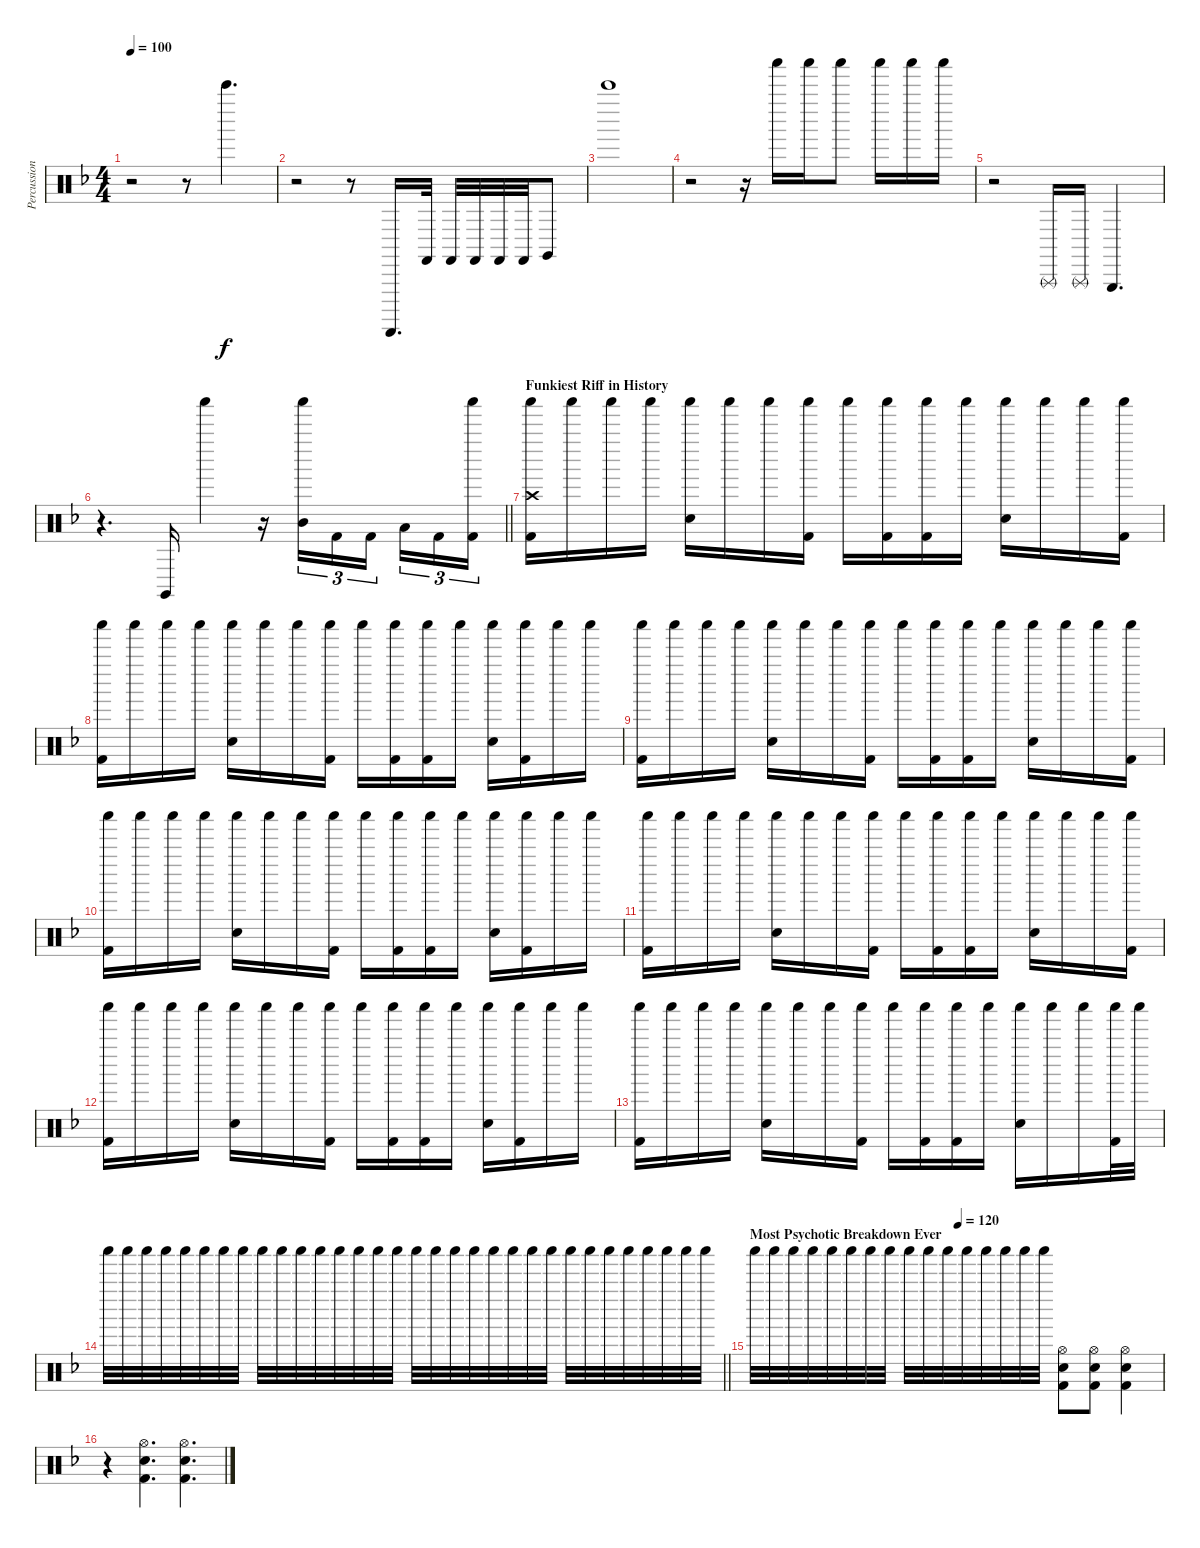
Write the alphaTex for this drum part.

\track ("Percussion" "Percussion") {instrument percussion}
\staff {score}
\articulation defaults
\ts (4 4)
\tempo 100
\clef neutral
\ks dminor
r.2{dy f} r.8 "Bell Tree (hit)".4{d} |
r.2 r.8 "Guiro (scrap-return)".16{d} "Castanets (hit)".32 "Castanets (hit)".32 "Castanets (hit)".32 "Castanets (hit)".32 "Castanets (hit)".32 "Claves (hit)".8 |
"Bell Tree (hit)".1 |
r.2 r.16 "Shaker (hit)".16{volume 8} "Shaker (hit)".16 "Shaker (hit)".8{volume 16} "Shaker (hit)".16{volume 4} "Shaker (hit)".16 "Shaker (hit)".16 |
r.2 "Triangle (rnute)".16{volume 12} "Triangle (rnute)".16 "Triangle (hit)".4{d} |
\barLineRight lightlight
r.4{d} "Claves (hit)".16 "Shaker (hit)".4 r.16 ("Shaker (hit)" "Mid Tom (hit)").16{tu (3 2)} "Kick (hit) 2".16{tu (3 2)} "Kick (hit) 2".16{tu (3 2) beam splitsecondary} "Low Tom (hit)".16{tu (3 2)} "Kick (hit) 2".16{tu (3 2)} ("Shaker (hit)" "Kick (hit) 2").16{tu (3 2)} |
\section ("" "Funkiest Riff in History")
("Crash high (hit)" "Shaker (hit)" "Kick (hit) 2").16 "Shaker (hit)".16 "Shaker (hit)".16 "Shaker (hit)".16 ("Shaker (hit)" "Snare (hit) 2").16 "Shaker (hit)".16 "Shaker (hit)".16 ("Shaker (hit)" "Kick (hit) 2").16 "Shaker (hit)".16 ("Shaker (hit)" "Kick (hit) 2").16 ("Shaker (hit)" "Kick (hit) 2").16 "Shaker (hit)".16 ("Shaker (hit)" "Snare (hit) 2").16 "Shaker (hit)".16 "Shaker (hit)".16 ("Shaker (hit)" "Kick (hit) 2").16 |
("Shaker (hit)" "Kick (hit) 2").16 "Shaker (hit)".16 "Shaker (hit)".16 "Shaker (hit)".16 ("Shaker (hit)" "Snare (hit) 2").16 "Shaker (hit)".16 "Shaker (hit)".16 ("Shaker (hit)" "Kick (hit) 2").16 "Shaker (hit)".16 ("Shaker (hit)" "Kick (hit) 2").16 ("Shaker (hit)" "Kick (hit) 2").16 "Shaker (hit)".16 ("Shaker (hit)" "Snare (hit) 2").16 ("Shaker (hit)" "Kick (hit) 2").16 "Shaker (hit)".16 "Shaker (hit)".16 |
("Shaker (hit)" "Kick (hit) 2").16 "Shaker (hit)".16 "Shaker (hit)".16 "Shaker (hit)".16 ("Shaker (hit)" "Snare (hit) 2").16 "Shaker (hit)".16 "Shaker (hit)".16 ("Shaker (hit)" "Kick (hit) 2").16 "Shaker (hit)".16 ("Shaker (hit)" "Kick (hit) 2").16 ("Shaker (hit)" "Kick (hit) 2").16 "Shaker (hit)".16 ("Shaker (hit)" "Snare (hit) 2").16 "Shaker (hit)".16 "Shaker (hit)".16 ("Shaker (hit)" "Kick (hit) 2").16 |
("Shaker (hit)" "Kick (hit) 2").16 "Shaker (hit)".16 "Shaker (hit)".16 "Shaker (hit)".16 ("Shaker (hit)" "Snare (hit) 2").16 "Shaker (hit)".16 "Shaker (hit)".16 ("Shaker (hit)" "Kick (hit) 2").16 "Shaker (hit)".16 ("Shaker (hit)" "Kick (hit) 2").16 ("Shaker (hit)" "Kick (hit) 2").16 "Shaker (hit)".16 ("Shaker (hit)" "Snare (hit) 2").16 ("Shaker (hit)" "Kick (hit) 2").16 "Shaker (hit)".16 "Shaker (hit)".16 |
("Shaker (hit)" "Kick (hit) 2").16 "Shaker (hit)".16 "Shaker (hit)".16 "Shaker (hit)".16 ("Shaker (hit)" "Snare (hit) 2").16 "Shaker (hit)".16 "Shaker (hit)".16 ("Shaker (hit)" "Kick (hit) 2").16 "Shaker (hit)".16 ("Shaker (hit)" "Kick (hit) 2").16 ("Shaker (hit)" "Kick (hit) 2").16 "Shaker (hit)".16 ("Shaker (hit)" "Snare (hit) 2").16 "Shaker (hit)".16 "Shaker (hit)".16 ("Shaker (hit)" "Kick (hit) 2").16 |
("Shaker (hit)" "Kick (hit) 2").16 "Shaker (hit)".16 "Shaker (hit)".16 "Shaker (hit)".16 ("Shaker (hit)" "Snare (hit) 2").16 "Shaker (hit)".16 "Shaker (hit)".16 ("Shaker (hit)" "Kick (hit) 2").16 "Shaker (hit)".16 ("Shaker (hit)" "Kick (hit) 2").16 ("Shaker (hit)" "Kick (hit) 2").16 "Shaker (hit)".16 ("Shaker (hit)" "Snare (hit) 2").16 ("Shaker (hit)" "Kick (hit) 2").16 "Shaker (hit)".16 "Shaker (hit)".16 |
("Shaker (hit)" "Kick (hit) 2").16 "Shaker (hit)".16 "Shaker (hit)".16 "Shaker (hit)".16 ("Shaker (hit)" "Snare (hit) 2").16 "Shaker (hit)".16 "Shaker (hit)".16 ("Shaker (hit)" "Kick (hit) 2").16 "Shaker (hit)".16 ("Shaker (hit)" "Kick (hit) 2").16 ("Shaker (hit)" "Kick (hit) 2").16 "Shaker (hit)".16 ("Shaker (hit)" "Snare (hit) 2").16 "Shaker (hit)".16 "Shaker (hit)".16 ("Shaker (hit)" "Kick (hit) 2").32 "Shaker (hit)".32 |
\barLineRight lightlight "Shaker (hit)".32 "Shaker (hit)".32 "Shaker (hit)".32 "Shaker (hit)".32 "Shaker (hit)".32 "Shaker (hit)".32 "Shaker (hit)".32 "Shaker (hit)".32 "Shaker (hit)".32 "Shaker (hit)".32 "Shaker (hit)".32 "Shaker (hit)".32 "Shaker (hit)".32 "Shaker (hit)".32 "Shaker (hit)".32 "Shaker (hit)".32 "Shaker (hit)".32 "Shaker (hit)".32 "Shaker (hit)".32 "Shaker (hit)".32 "Shaker (hit)".32 "Shaker (hit)".32 "Shaker (hit)".32 "Shaker (hit)".32 "Shaker (hit)".32 "Shaker (hit)".32 "Shaker (hit)".32 "Shaker (hit)".32 "Shaker (hit)".32 "Shaker (hit)".32 "Shaker (hit)".32 "Shaker (hit)".32
|
\section ("" "Most Psychotic Breakdown Ever")
\tempo (120 0.5)
"Shaker (hit)".32 "Shaker (hit)".32 "Shaker (hit)".32 "Shaker (hit)".32 "Shaker (hit)".32 "Shaker (hit)".32 "Shaker (hit)".32 "Shaker (hit)".32 "Shaker (hit)".32 "Shaker (hit)".32 "Shaker (hit)".32 "Shaker (hit)".32 "Shaker (hit)".32 "Shaker (hit)".32 "Shaker (hit)".32 "Shaker (hit)".32 ("Hi-Hat (open)" "Snare (hit) 2" "Kick (hit) 2").8 ("Hi-Hat (open)" "Snare (hit) 2" "Kick (hit) 2").8 ("Hi-Hat (open)" "Snare (hit) 2" "Kick (hit) 2").4 |
r.4 ("Hi-Hat (open)" "Snare (hit) 2" "Kick (hit) 2").4{d} ("Hi-Hat (open)" "Snare (hit) 2" "Kick (hit) 2").4{d}
